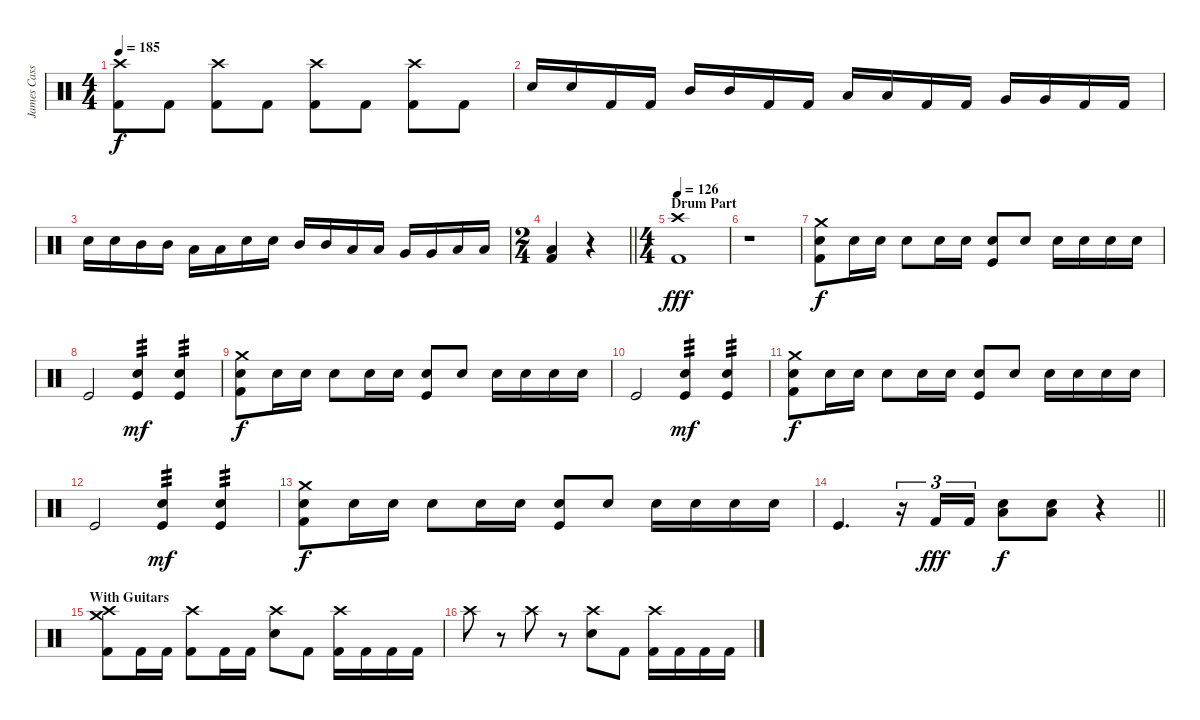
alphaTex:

\track ("James Cassells (Drums)" "James Cass") {instrument percussion}
\staff {score}
\articulation defaults
\ts (4 4)
\tempo 185
\clef neutral
\ks c
("Crash high (hit)" "Kick (hit) 2").8{dy f} "Kick (hit) 2".8 ("Crash high (hit)" "Kick (hit) 2").8 "Kick (hit) 2".8 ("Crash high (hit)" "Kick (hit) 2").8 "Kick (hit) 2".8 ("Crash high (hit)" "Kick (hit) 2").8 "Kick (hit) 2".8 |
"Snare (hit) 2".16 "Snare (hit) 2".16 "Kick (hit) 2".16 "Kick (hit) 2".16 "Mid Tom (hit)".16 "Mid Tom (hit)".16 "Kick (hit) 2".16 "Kick (hit) 2".16 "Low Tom (hit)".16 "Low Tom (hit)".16 "Kick (hit) 2".16 "Kick (hit) 2".16 "Very Low Tom (hit)".16 "Very Low Tom (hit)".16 "Kick (hit) 2".16 "Kick (hit) 2".16 |
"Snare (hit) 2".16 "Snare (hit) 2".16 "Mid Tom (hit)".16 "Mid Tom (hit)".16 "Low Tom (hit)".16 "Low Tom (hit)".16 "Snare (hit) 2".16 "Snare (hit) 2".16 "Mid Tom (hit)".16 "Mid Tom (hit)".16 "Low Tom (hit)".16 "Low Tom (hit)".16 "Very Low Tom (hit)".16 "Very Low Tom (hit)".16 "Low Floor Tom (hit)".16 "Low Floor Tom (hit)".16 |
\ts (2 4)
\barLineRight lightlight
("Low Floor Tom (hit)" "Kick (hit) 2").4 r.4 |
\ts (4 4)
\section ("" "Drum Part")
\tempo 126
("Crash high (hit)" "Kick (hit) 2").1{dy fff} |
r.1 |
("Crash medium (hit)" "Snare (hit) 2" "Kick (hit) 2").8{dy f} "Snare (hit) 2".16 "Snare (hit) 2".16 "Snare (hit) 2".8 "Snare (hit) 2".16 "Snare (hit) 2".16 ("Snare (hit) 2" "Kick (hit)").8 "Snare (hit) 2".8 "Snare (hit) 2".16 "Snare (hit) 2".16 "Snare (hit) 2".16 "Snare (hit) 2".16 |
"Kick (hit)".2 ("Snare (hit) 2" "Kick (hit)").4{tp 3 dy mf} ("Snare (hit) 2" "Kick (hit)").4{tp 3} |
("Crash medium (hit)" "Snare (hit) 2" "Kick (hit) 2").8{dy f} "Snare (hit) 2".16 "Snare (hit) 2".16 "Snare (hit) 2".8 "Snare (hit) 2".16 "Snare (hit) 2".16 ("Snare (hit) 2" "Kick (hit)").8 "Snare (hit) 2".8 "Snare (hit) 2".16 "Snare (hit) 2".16 "Snare (hit) 2".16 "Snare (hit) 2".16 |
"Kick (hit)".2 ("Snare (hit) 2" "Kick (hit)").4{tp 3 dy mf} ("Snare (hit) 2" "Kick (hit)").4{tp 3} |
("Crash medium (hit)" "Snare (hit) 2" "Kick (hit) 2").8{dy f} "Snare (hit) 2".16 "Snare (hit) 2".16 "Snare (hit) 2".8 "Snare (hit) 2".16 "Snare (hit) 2".16 ("Snare (hit) 2" "Kick (hit)").8 "Snare (hit) 2".8 "Snare (hit) 2".16 "Snare (hit) 2".16 "Snare (hit) 2".16 "Snare (hit) 2".16 |
"Kick (hit)".2 ("Snare (hit) 2" "Kick (hit)").4{tp 3 dy mf} ("Snare (hit) 2" "Kick (hit)").4{tp 3} |
("Crash medium (hit)" "Snare (hit) 2" "Kick (hit) 2").8{dy f} "Snare (hit) 2".16 "Snare (hit) 2".16 "Snare (hit) 2".8 "Snare (hit) 2".16 "Snare (hit) 2".16 ("Snare (hit) 2" "Kick (hit)").8 "Snare (hit) 2".8 "Snare (hit) 2".16 "Snare (hit) 2".16 "Snare (hit) 2".16 "Snare (hit) 2".16 |
\barLineRight lightlight "Kick (hit)".4{d}
r.16{tu (3 2)} "Kick (hit) 2".16{tu (3 2) dy fff} "Kick (hit) 2".16{tu (3 2)} ("Snare (hit) 2" "Low Floor Tom (hit)").8{dy f} ("Snare (hit) 2" "Low Floor Tom (hit)").8 r.4 |
\section ("" "With Guitars")
("Crash high (hit)" "Crash medium (hit)" "Kick (hit) 2").8 "Kick (hit) 2".16 "Kick (hit) 2".16 ("Crash high (hit)" "Kick (hit) 2").8 "Kick (hit) 2".16 "Kick (hit) 2".16 ("Crash high (hit)" "Snare (hit) 2").8 "Kick (hit) 2".8 ("Crash high (hit)" "Kick (hit) 2").16 "Kick (hit) 2".16 "Kick (hit) 2".16 "Kick (hit) 2".16 |
"Crash high (hit)".8 r.8 "Crash high (hit)".8 r.8 ("Crash high (hit)" "Snare (hit) 2").8 "Kick (hit) 2".8 ("Crash high (hit)" "Kick (hit) 2").16 "Kick (hit) 2".16 "Kick (hit) 2".16 "Kick (hit) 2".16
